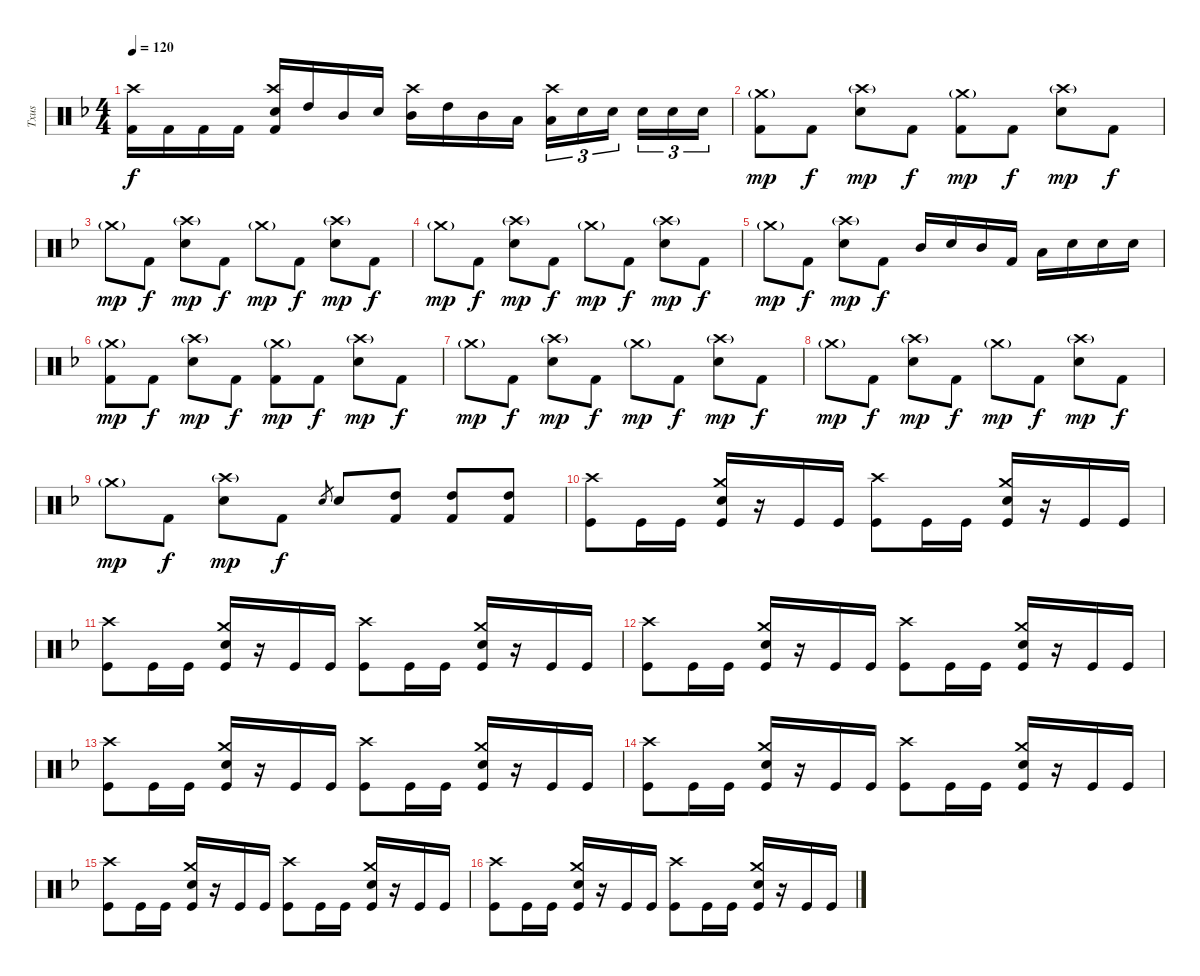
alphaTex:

\track ("Txus" "Txus") {instrument percussion}
\staff {score}
\articulation defaults
\ts (4 4)
\tempo 120
\clef neutral
\ks dminor
("Kick (hit) 2" "Crash high (hit)").16{dy f} "Kick (hit) 2".16 "Kick (hit) 2".16 "Kick (hit) 2".16 ("Kick (hit) 2" "Electric Snare (hit)" "Crash high (hit)").16 "High Tom (hit)".16 "Mid Tom (hit)".16 "Electric Snare (hit)".16 ("Mid Tom (hit)" "Crash high (hit)").16 "High Tom (hit)".16 "Mid Tom (hit)".16 "Low Tom (hit)".16 ("Low Tom (hit)" "Crash high (hit)").16{tu (3 2)} "Electric Snare (hit)".16{tu (3 2)} "Electric Snare (hit)".16{tu (3 2) beam splitsecondary} "Electric Snare (hit)".16{tu (3 2)} "Electric Snare (hit)".16{tu (3 2)} "Electric Snare (hit)".16{tu (3 2)} |
("Crash medium (hit)"{g} "Kick (hit) 2").8{dy mp} "Kick (hit) 2".8{dy f} ("Crash high (hit)"{g} "Electric Snare (hit)").8{dy mp} "Kick (hit) 2".8{dy f} ("Crash medium (hit)"{g} "Kick (hit) 2").8{dy mp} "Kick (hit) 2".8{dy f} ("Crash high (hit)"{g} "Electric Snare (hit)").8{dy mp} "Kick (hit) 2".8{dy f} |
"Crash medium (hit)"{g}.8{dy mp} "Kick (hit) 2".8{dy f} ("Crash high (hit)"{g} "Electric Snare (hit)").8{dy mp} "Kick (hit) 2".8{dy f} "Crash medium (hit)"{g}.8{dy mp} "Kick (hit) 2".8{dy f} ("Crash high (hit)"{g} "Electric Snare (hit)").8{dy mp} "Kick (hit) 2".8{dy f} |
"Crash medium (hit)"{g}.8{dy mp} "Kick (hit) 2".8{dy f} ("Crash high (hit)"{g} "Electric Snare (hit)").8{dy mp} "Kick (hit) 2".8{dy f} "Crash medium (hit)"{g}.8{dy mp} "Kick (hit) 2".8{dy f} ("Crash high (hit)"{g} "Electric Snare (hit)").8{dy mp} "Kick (hit) 2".8{dy f} |
"Crash medium (hit)"{g}.8{dy mp} "Kick (hit) 2".8{dy f} ("Crash high (hit)"{g} "Electric Snare (hit)").8{dy mp} "Kick (hit) 2".8{dy f} "Mid Tom (hit)".16 "Electric Snare (hit)".16 "Mid Tom (hit)".16 "Kick (hit) 2".16 "Low Tom (hit)".16 "Electric Snare (hit)".16 "Electric Snare (hit)".16 "Electric Snare (hit)".16 |
("Crash medium (hit)"{g} "Kick (hit) 2").8{dy mp} "Kick (hit) 2".8{dy f} ("Crash high (hit)"{g} "Electric Snare (hit)").8{dy mp} "Kick (hit) 2".8{dy f} ("Crash medium (hit)"{g} "Kick (hit) 2").8{dy mp} "Kick (hit) 2".8{dy f} ("Crash high (hit)"{g} "Electric Snare (hit)").8{dy mp} "Kick (hit) 2".8{dy f} |
"Crash medium (hit)"{g}.8{dy mp} "Kick (hit) 2".8{dy f} ("Crash high (hit)"{g} "Electric Snare (hit)").8{dy mp} "Kick (hit) 2".8{dy f} "Crash medium (hit)"{g}.8{dy mp} "Kick (hit) 2".8{dy f} ("Crash high (hit)"{g} "Electric Snare (hit)").8{dy mp} "Kick (hit) 2".8{dy f} |
"Crash medium (hit)"{g}.8{dy mp} "Kick (hit) 2".8{dy f} ("Crash high (hit)"{g} "Electric Snare (hit)").8{dy mp} "Kick (hit) 2".8{dy f} "Crash medium (hit)"{g}.8{dy mp} "Kick (hit) 2".8{dy f} ("Crash high (hit)"{g} "Electric Snare (hit)").8{dy mp} "Kick (hit) 2".8{dy f} |
"Crash medium (hit)"{g}.8{dy mp} "Kick (hit) 2".8{dy f} ("Crash high (hit)"{g} "Electric Snare (hit)").8{dy mp} "Kick (hit) 2".8{dy f} "Electric Snare (hit)".8{gr} "Electric Snare (hit)".8 ("High Tom (hit)" "Kick (hit) 2").8 ("High Tom (hit)" "Kick (hit) 2").8 ("High Tom (hit)" "Kick (hit) 2").8 |
("Kick (hit)" "Crash high (hit)").8 "Kick (hit)".16 "Kick (hit)".16 ("Kick (hit)" "Crash medium (hit)" "Electric Snare (hit)").16 r.16 "Kick (hit)".16 "Kick (hit)".16 ("Kick (hit)" "Crash high (hit)").8 "Kick (hit)".16 "Kick (hit)".16 ("Kick (hit)" "Crash medium (hit)" "Electric Snare (hit)").16 r.16 "Kick (hit)".16 "Kick (hit)".16 |
("Kick (hit)" "Crash high (hit)").8 "Kick (hit)".16 "Kick (hit)".16 ("Kick (hit)" "Crash medium (hit)" "Electric Snare (hit)").16 r.16 "Kick (hit)".16 "Kick (hit)".16 ("Kick (hit)" "Crash high (hit)").8 "Kick (hit)".16 "Kick (hit)".16 ("Kick (hit)" "Crash medium (hit)" "Electric Snare (hit)").16 r.16 "Kick (hit)".16 "Kick (hit)".16 |
("Kick (hit)" "Crash high (hit)").8 "Kick (hit)".16 "Kick (hit)".16 ("Kick (hit)" "Crash medium (hit)" "Electric Snare (hit)").16 r.16 "Kick (hit)".16 "Kick (hit)".16 ("Kick (hit)" "Crash high (hit)").8 "Kick (hit)".16 "Kick (hit)".16 ("Kick (hit)" "Crash medium (hit)" "Electric Snare (hit)").16 r.16 "Kick (hit)".16 "Kick (hit)".16 |
("Kick (hit)" "Crash high (hit)").8 "Kick (hit)".16 "Kick (hit)".16 ("Kick (hit)" "Crash medium (hit)" "Electric Snare (hit)").16 r.16 "Kick (hit)".16 "Kick (hit)".16 ("Kick (hit)" "Crash high (hit)").8 "Kick (hit)".16 "Kick (hit)".16 ("Kick (hit)" "Crash medium (hit)" "Electric Snare (hit)").16 r.16 "Kick (hit)".16 "Kick (hit)".16 |
("Kick (hit)" "Crash high (hit)").8 "Kick (hit)".16 "Kick (hit)".16 ("Kick (hit)" "Crash medium (hit)" "Electric Snare (hit)").16 r.16 "Kick (hit)".16 "Kick (hit)".16 ("Kick (hit)" "Crash high (hit)").8 "Kick (hit)".16 "Kick (hit)".16 ("Kick (hit)" "Crash medium (hit)" "Electric Snare (hit)").16 r.16 "Kick (hit)".16 "Kick (hit)".16 |
("Kick (hit)" "Crash high (hit)").8 "Kick (hit)".16 "Kick (hit)".16 ("Kick (hit)" "Crash medium (hit)" "Electric Snare (hit)").16 r.16 "Kick (hit)".16 "Kick (hit)".16 ("Kick (hit)" "Crash high (hit)").8 "Kick (hit)".16 "Kick (hit)".16 ("Kick (hit)" "Crash medium (hit)" "Electric Snare (hit)").16 r.16 "Kick (hit)".16 "Kick (hit)".16 |
("Kick (hit)" "Crash high (hit)").8 "Kick (hit)".16 "Kick (hit)".16 ("Kick (hit)" "Crash medium (hit)" "Electric Snare (hit)").16 r.16 "Kick (hit)".16 "Kick (hit)".16 ("Kick (hit)" "Crash high (hit)").8 "Kick (hit)".16 "Kick (hit)".16 ("Kick (hit)" "Crash medium (hit)" "Electric Snare (hit)").16 r.16 "Kick (hit)".16 "Kick (hit)".16
